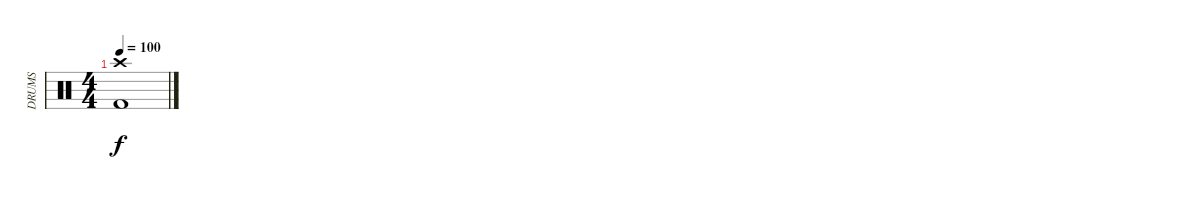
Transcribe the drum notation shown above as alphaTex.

\track ("DRUMS" "DRUMS") {instrument percussion}
\staff {score}
\articulation defaults
\ts (4 4)
\tempo 100
\clef neutral
\ks c
("Crash high (hit)" "Kick (hit) 2").1{dy f}
